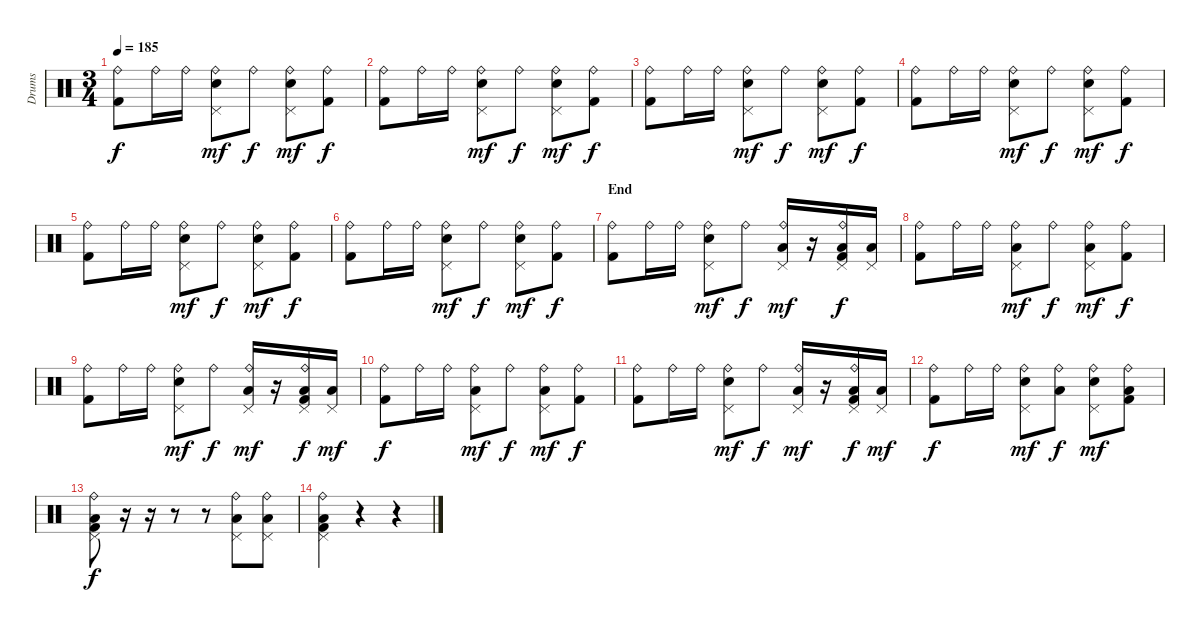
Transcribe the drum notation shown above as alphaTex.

\track ("Drums" "Drums") {instrument percussion}
\staff {score}
\articulation defaults
\ts (3 4)
\tempo 185
\clef neutral
\ks c
("Ride (bell)" "Kick (hit) 2").8{dy f} "Ride (bell)".16 "Ride (bell)".16 ("Ride (bell)" "Pedal Hi-Hat (hit)" "Electric Snare (hit)").8{dy mf} "Ride (bell)".8{dy f} ("Ride (bell)" "Pedal Hi-Hat (hit)" "Electric Snare (hit)").8{dy mf} ("Ride (bell)" "Kick (hit) 2").8{dy f} |
("Ride (bell)" "Kick (hit) 2").8 "Ride (bell)".16 "Ride (bell)".16 ("Ride (bell)" "Pedal Hi-Hat (hit)" "Electric Snare (hit)").8{dy mf} "Ride (bell)".8{dy f} ("Ride (bell)" "Pedal Hi-Hat (hit)" "Electric Snare (hit)").8{dy mf} ("Ride (bell)" "Kick (hit) 2").8{dy f} |
("Ride (bell)" "Kick (hit) 2").8 "Ride (bell)".16 "Ride (bell)".16 ("Ride (bell)" "Pedal Hi-Hat (hit)" "Electric Snare (hit)").8{dy mf} "Ride (bell)".8{dy f} ("Ride (bell)" "Pedal Hi-Hat (hit)" "Electric Snare (hit)").8{dy mf} ("Ride (bell)" "Kick (hit) 2").8{dy f} |
("Ride (bell)" "Kick (hit) 2").8 "Ride (bell)".16 "Ride (bell)".16 ("Ride (bell)" "Pedal Hi-Hat (hit)" "Electric Snare (hit)").8{dy mf} "Ride (bell)".8{dy f} ("Ride (bell)" "Pedal Hi-Hat (hit)" "Electric Snare (hit)").8{dy mf} ("Ride (bell)" "Kick (hit) 2").8{dy f} |
("Ride (bell)" "Kick (hit) 2").8 "Ride (bell)".16 "Ride (bell)".16 ("Ride (bell)" "Pedal Hi-Hat (hit)" "Electric Snare (hit)").8{dy mf} "Ride (bell)".8{dy f} ("Ride (bell)" "Pedal Hi-Hat (hit)" "Electric Snare (hit)").8{dy mf} ("Ride (bell)" "Kick (hit) 2").8{dy f} |
("Ride (bell)" "Kick (hit) 2").8 "Ride (bell)".16 "Ride (bell)".16 ("Ride (bell)" "Pedal Hi-Hat (hit)" "Electric Snare (hit)").8{dy mf} "Ride (bell)".8{dy f} ("Ride (bell)" "Pedal Hi-Hat (hit)" "Electric Snare (hit)").8{dy mf} ("Ride (bell)" "Kick (hit) 2").8{dy f} |
\section ("" "End")
("Ride (bell)" "Kick (hit) 2").8 "Ride (bell)".16 "Ride (bell)".16 ("Ride (bell)" "Pedal Hi-Hat (hit)" "Electric Snare (hit)").8{dy mf} "Ride (bell)".8{dy f} ("Ride (bell)" "Pedal Hi-Hat (hit)" "Low Floor Tom (hit)").16{dy mf} r.16 ("Ride (bell)" "Pedal Hi-Hat (hit)" "Low Floor Tom (hit)" "Kick (hit) 2").16{dy f} ("Pedal Hi-Hat (hit)" "Low Floor Tom (hit)").16 |
("Ride (bell)" "Kick (hit) 2").8 "Ride (bell)".16 "Ride (bell)".16 ("Ride (bell)" "Pedal Hi-Hat (hit)" "Low Floor Tom (hit)").8{dy mf} "Ride (bell)".8{dy f} ("Ride (bell)" "Pedal Hi-Hat (hit)" "Low Floor Tom (hit)").8{dy mf} ("Ride (bell)" "Kick (hit) 2").8{dy f} |
("Ride (bell)" "Kick (hit) 2").8 "Ride (bell)".16 "Ride (bell)".16 ("Ride (bell)" "Pedal Hi-Hat (hit)" "Electric Snare (hit)").8{dy mf} "Ride (bell)".8{dy f} ("Ride (bell)" "Pedal Hi-Hat (hit)" "Low Floor Tom (hit)").16{dy mf} r.16 ("Ride (bell)" "Pedal Hi-Hat (hit)" "Low Floor Tom (hit)" "Kick (hit) 2").16{dy f} ("Pedal Hi-Hat (hit)" "Low Floor Tom (hit)").16{dy mf} |
("Ride (bell)" "Kick (hit) 2").8{dy f} "Ride (bell)".16 "Ride (bell)".16 ("Ride (bell)" "Pedal Hi-Hat (hit)" "Low Floor Tom (hit)").8{dy mf} "Ride (bell)".8{dy f} ("Ride (bell)" "Pedal Hi-Hat (hit)" "Low Floor Tom (hit)").8{dy mf} ("Ride (bell)" "Kick (hit) 2").8{dy f} |
("Ride (bell)" "Kick (hit) 2").8 "Ride (bell)".16 "Ride (bell)".16 ("Ride (bell)" "Pedal Hi-Hat (hit)" "Electric Snare (hit)").8{dy mf} "Ride (bell)".8{dy f} ("Ride (bell)" "Pedal Hi-Hat (hit)" "Low Floor Tom (hit)").16{dy mf} r.16 ("Ride (bell)" "Pedal Hi-Hat (hit)" "Low Floor Tom (hit)" "Kick (hit) 2").16{dy f} ("Pedal Hi-Hat (hit)" "Low Floor Tom (hit)").16{dy mf} |
("Ride (bell)" "Kick (hit) 2").8{dy f} "Ride (bell)".16 "Ride (bell)".16 ("Ride (bell)" "Pedal Hi-Hat (hit)" "Electric Snare (hit)").8{dy mf} ("Ride (bell)" "Low Floor Tom (hit)").8{dy f} ("Ride (bell)" "Pedal Hi-Hat (hit)" "Electric Snare (hit)").8{dy mf} ("Ride (bell)" "Low Floor Tom (hit)" "Kick (hit) 2").8 |
("Ride (bell)" "Pedal Hi-Hat (hit)" "Low Floor Tom (hit)" "Kick (hit) 2").8{dy f} r.16 r.16 r.8 r.8 ("Ride (bell)" "Pedal Hi-Hat (hit)" "Low Floor Tom (hit)").8 ("Ride (bell)" "Pedal Hi-Hat (hit)" "Low Floor Tom (hit)").8 |
("Ride (bell)" "Pedal Hi-Hat (hit)" "Low Floor Tom (hit)" "Kick (hit) 2").4 r.4 r.4
